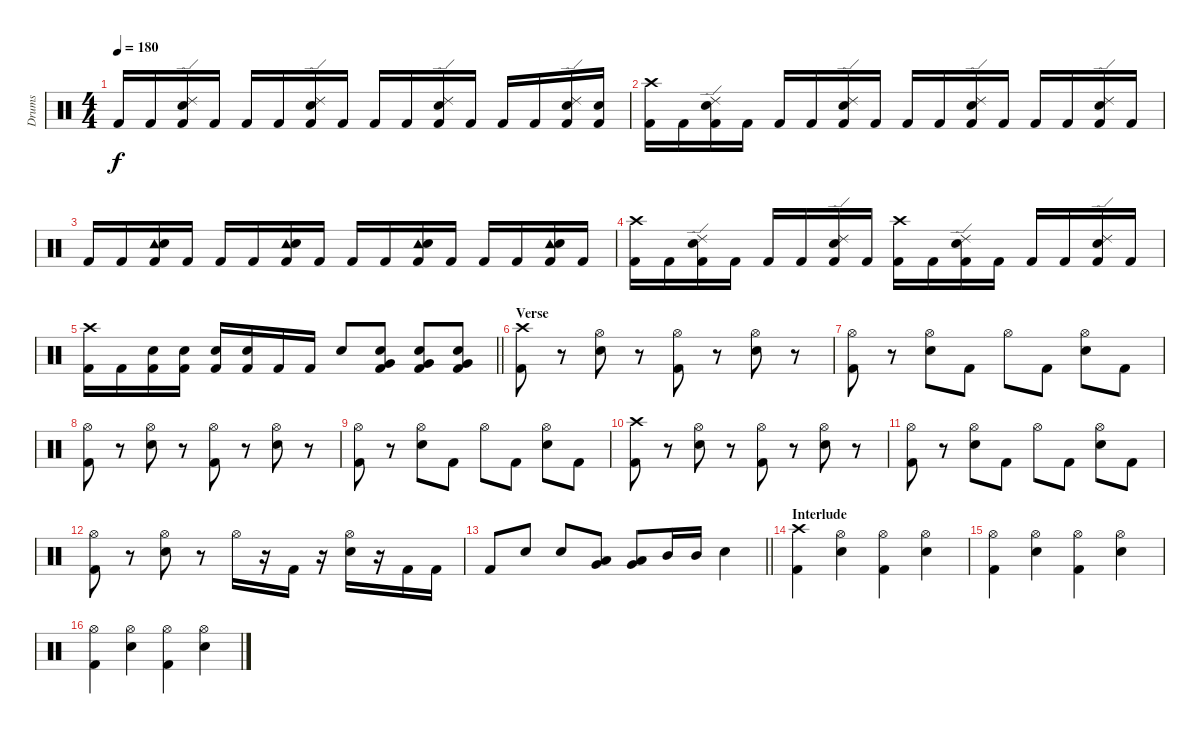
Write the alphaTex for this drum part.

\track ("Drums" "Drums") {instrument percussion}
\staff {score}
\articulation defaults
\ts (4 4)
\tempo 180
\clef neutral
\ks c "Kick (hit) 2".16{dy f} "Kick (hit) 2".16
("Ride (edge) 2" "Electric Snare (hit)" "Kick (hit) 2").16 "Kick (hit) 2".16 "Kick (hit) 2".16 "Kick (hit) 2".16 ("Ride (edge) 2" "Electric Snare (hit)" "Kick (hit) 2").16 "Kick (hit) 2".16 "Kick (hit) 2".16 "Kick (hit) 2".16 ("Ride (edge) 2" "Electric Snare (hit)" "Kick (hit) 2").16 "Kick (hit) 2".16 "Kick (hit) 2".16 "Kick (hit) 2".16 ("Ride (edge) 2" "Electric Snare (hit)" "Kick (hit) 2").16 ("Electric Snare (hit)" "Kick (hit) 2").16 |
("Crash high (hit)" "Kick (hit) 2").16 "Kick (hit) 2".16 ("Ride (edge) 2" "Electric Snare (hit)" "Kick (hit) 2").16 "Kick (hit) 2".16 "Kick (hit) 2".16 "Kick (hit) 2".16 ("Ride (edge) 2" "Electric Snare (hit)" "Kick (hit) 2").16 "Kick (hit) 2".16 "Kick (hit) 2".16 "Kick (hit) 2".16 ("Ride (edge) 2" "Electric Snare (hit)" "Kick (hit) 2").16 "Kick (hit) 2".16 "Kick (hit) 2".16 "Kick (hit) 2".16 ("Ride (edge) 2" "Electric Snare (hit)" "Kick (hit) 2").16 "Kick (hit) 2".16 |
"Kick (hit) 2".16 "Kick (hit) 2".16 ("Tambourine (hit)" "Electric Snare (hit)" "Kick (hit) 2").16 "Kick (hit) 2".16 "Kick (hit) 2".16 "Kick (hit) 2".16 ("Tambourine (hit)" "Electric Snare (hit)" "Kick (hit) 2").16 "Kick (hit) 2".16 "Kick (hit) 2".16 "Kick (hit) 2".16 ("Tambourine (hit)" "Electric Snare (hit)" "Kick (hit) 2").16 "Kick (hit) 2".16 "Kick (hit) 2".16 "Kick (hit) 2".16 ("Tambourine (hit)" "Electric Snare (hit)" "Kick (hit) 2").16 "Kick (hit) 2".16 |
("Crash high (hit)" "Kick (hit) 2").16 "Kick (hit) 2".16 ("Ride (edge) 2" "Electric Snare (hit)" "Kick (hit) 2").16 "Kick (hit) 2".16 "Kick (hit) 2".16 "Kick (hit) 2".16 ("Ride (edge) 2" "Electric Snare (hit)" "Kick (hit) 2").16 "Kick (hit) 2".16 ("Crash high (hit)" "Kick (hit) 2").16 "Kick (hit) 2".16 ("Ride (edge) 2" "Electric Snare (hit)" "Kick (hit) 2").16 "Kick (hit) 2".16 "Kick (hit) 2".16 "Kick (hit) 2".16 ("Ride (edge) 2" "Electric Snare (hit)" "Kick (hit) 2").16 "Kick (hit) 2".16 |
\barLineRight lightlight
("Crash high (hit)" "Kick (hit) 2").16 "Kick (hit) 2".16 ("Electric Snare (hit)" "Kick (hit) 2").16 ("Electric Snare (hit)" "Kick (hit) 2").16 ("Electric Snare (hit)" "Kick (hit) 2").16 ("Electric Snare (hit)" "Kick (hit) 2").16 "Kick (hit) 2".16 "Kick (hit) 2".16 "Electric Snare (hit)".8 ("Very Low Tom (hit)" "Electric Snare (hit)" "Kick (hit) 2").8 ("Very Low Tom (hit)" "Electric Snare (hit)" "Kick (hit) 2").8 ("Very Low Tom (hit)" "Electric Snare (hit)" "Kick (hit) 2").8 |
\section ("" "Verse")
("Crash high (hit)" "Kick (hit) 2").8 r.8 ("Hi-Hat (open)" "Electric Snare (hit)").8 r.8 ("Hi-Hat (open)" "Kick (hit) 2").8 r.8 ("Hi-Hat (open)" "Electric Snare (hit)").8 r.8 |
("Hi-Hat (open)" "Kick (hit) 2").8 r.8 ("Hi-Hat (open)" "Electric Snare (hit)").8 "Kick (hit) 2".8 "Hi-Hat (open)".8 "Kick (hit) 2".8 ("Hi-Hat (open)" "Electric Snare (hit)").8 "Kick (hit) 2".8 |
("Hi-Hat (open)" "Kick (hit) 2").8 r.8 ("Hi-Hat (open)" "Electric Snare (hit)").8 r.8 ("Hi-Hat (open)" "Kick (hit) 2").8 r.8 ("Hi-Hat (open)" "Electric Snare (hit)").8 r.8 |
("Hi-Hat (open)" "Kick (hit) 2").8 r.8 ("Hi-Hat (open)" "Electric Snare (hit)").8 "Kick (hit) 2".8 "Hi-Hat (open)".8 "Kick (hit) 2".8 ("Hi-Hat (open)" "Electric Snare (hit)").8 "Kick (hit) 2".8 |
("Crash high (hit)" "Kick (hit) 2").8 r.8 ("Hi-Hat (open)" "Electric Snare (hit)").8 r.8 ("Hi-Hat (open)" "Kick (hit) 2").8 r.8 ("Hi-Hat (open)" "Electric Snare (hit)").8 r.8 |
("Hi-Hat (open)" "Kick (hit) 2").8 r.8 ("Hi-Hat (open)" "Electric Snare (hit)").8 "Kick (hit) 2".8 "Hi-Hat (open)".8 "Kick (hit) 2".8 ("Hi-Hat (open)" "Electric Snare (hit)").8 "Kick (hit) 2".8 |
("Hi-Hat (open)" "Kick (hit) 2").8 r.8 ("Hi-Hat (open)" "Electric Snare (hit)").8 r.8 "Hi-Hat (open)".16 r.16 "Kick (hit) 2".16 r.16 ("Hi-Hat (open)" "Electric Snare (hit)").16 r.16 "Kick (hit) 2".16 "Kick (hit) 2".16 |
\barLineRight lightlight "Kick (hit) 2".8 "Electric Snare (hit)".8 "Electric Snare (hit)".8
("Very Low Tom (hit)" "Low Floor Tom (hit)").8 ("Very Low Tom (hit)" "Low Floor Tom (hit)").8 "Mid Tom (hit)".16 "Mid Tom (hit)".16 "Electric Snare (hit)".4 |
\section ("" "Interlude")
("Crash high (hit)" "Kick (hit) 2").4 ("Hi-Hat (open)" "Electric Snare (hit)").4 ("Hi-Hat (open)" "Kick (hit) 2").4 ("Hi-Hat (open)" "Electric Snare (hit)").4 |
("Hi-Hat (open)" "Kick (hit) 2").4 ("Hi-Hat (open)" "Electric Snare (hit)").4 ("Hi-Hat (open)" "Kick (hit) 2").4 ("Hi-Hat (open)" "Electric Snare (hit)").4 |
("Hi-Hat (open)" "Kick (hit) 2").4 ("Hi-Hat (open)" "Electric Snare (hit)").4 ("Hi-Hat (open)" "Kick (hit) 2").4 ("Hi-Hat (open)" "Electric Snare (hit)").4
